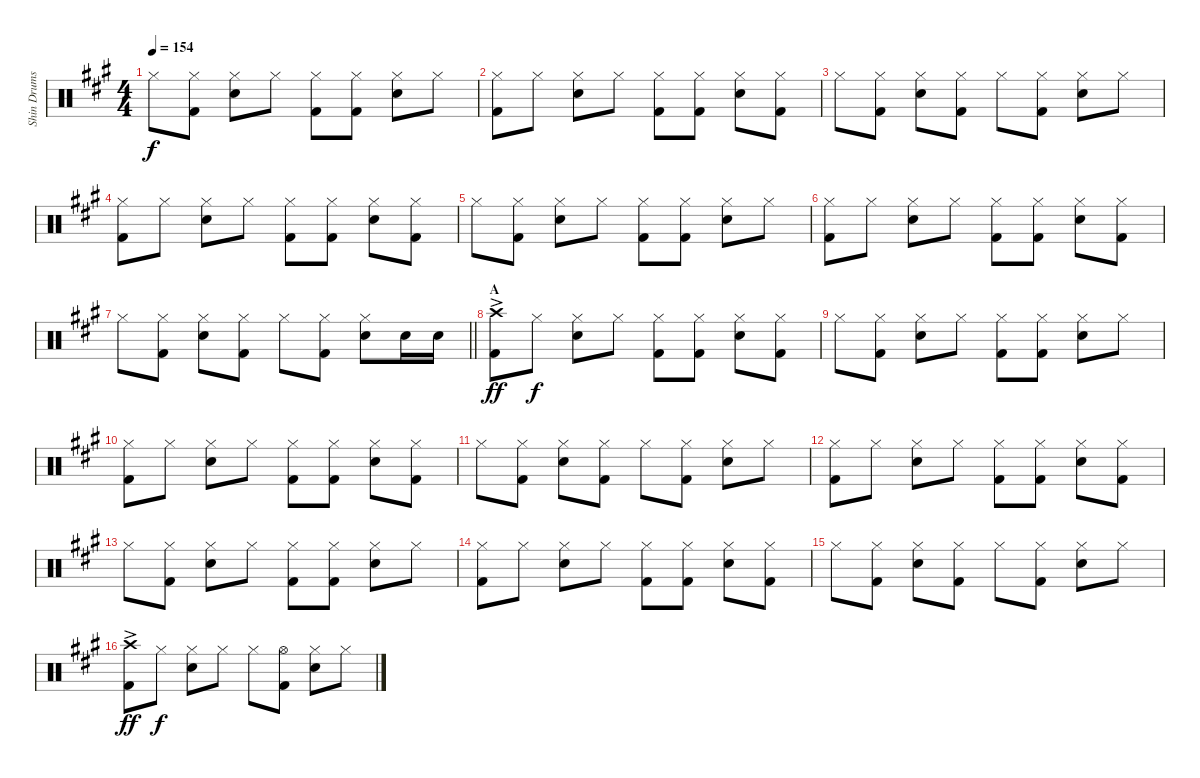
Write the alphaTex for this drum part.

\track ("Shin Drums" "Shin Drums") {instrument percussion}
\staff {score}
\articulation defaults
\ts (4 4)
\tempo 154
\clef neutral
\ks a "Hi-Hat (closed)".8{dy f}
("Hi-Hat (closed)" "Kick (hit) 2").8 ("Hi-Hat (closed)" "Snare (hit) 2").8 "Hi-Hat (closed)".8 ("Hi-Hat (closed)" "Kick (hit) 2").8 ("Hi-Hat (closed)" "Kick (hit) 2").8 ("Hi-Hat (closed)" "Snare (hit) 2").8 "Hi-Hat (closed)".8 |
("Hi-Hat (closed)" "Kick (hit) 2").8 "Hi-Hat (closed)".8 ("Hi-Hat (closed)" "Snare (hit) 2").8 "Hi-Hat (closed)".8 ("Hi-Hat (closed)" "Kick (hit) 2").8 ("Hi-Hat (closed)" "Kick (hit) 2").8 ("Hi-Hat (closed)" "Snare (hit) 2").8 ("Hi-Hat (closed)" "Kick (hit) 2").8 |
"Hi-Hat (closed)".8 ("Hi-Hat (closed)" "Kick (hit) 2").8 ("Hi-Hat (closed)" "Snare (hit) 2").8 ("Hi-Hat (closed)" "Kick (hit) 2").8 "Hi-Hat (closed)".8 ("Hi-Hat (closed)" "Kick (hit) 2").8 ("Hi-Hat (closed)" "Snare (hit) 2").8 "Hi-Hat (closed)".8 |
("Hi-Hat (closed)" "Kick (hit) 2").8 "Hi-Hat (closed)".8 ("Hi-Hat (closed)" "Snare (hit) 2").8 "Hi-Hat (closed)".8 ("Hi-Hat (closed)" "Kick (hit) 2").8 ("Hi-Hat (closed)" "Kick (hit) 2").8 ("Hi-Hat (closed)" "Snare (hit) 2").8 ("Hi-Hat (closed)" "Kick (hit) 2").8 |
"Hi-Hat (closed)".8 ("Hi-Hat (closed)" "Kick (hit) 2").8 ("Hi-Hat (closed)" "Snare (hit) 2").8 "Hi-Hat (closed)".8 ("Hi-Hat (closed)" "Kick (hit) 2").8 ("Hi-Hat (closed)" "Kick (hit) 2").8 ("Hi-Hat (closed)" "Snare (hit) 2").8 "Hi-Hat (closed)".8 |
("Hi-Hat (closed)" "Kick (hit) 2").8 "Hi-Hat (closed)".8 ("Hi-Hat (closed)" "Snare (hit) 2").8 "Hi-Hat (closed)".8 ("Hi-Hat (closed)" "Kick (hit) 2").8 ("Hi-Hat (closed)" "Kick (hit) 2").8 ("Hi-Hat (closed)" "Snare (hit) 2").8 ("Hi-Hat (closed)" "Kick (hit) 2").8 |
\barLineRight lightlight "Hi-Hat (closed)".8
("Hi-Hat (closed)" "Kick (hit) 2").8 ("Hi-Hat (closed)" "Snare (hit) 2").8 ("Hi-Hat (closed)" "Kick (hit) 2").8 "Hi-Hat (closed)".8 ("Hi-Hat (closed)" "Kick (hit) 2").8 ("Hi-Hat (closed)" "Snare (hit) 2").8 "Snare (hit) 2".16 "Snare (hit) 2".16 |
\section ("" "A")
("Crash high (hit)"{ac} "Kick (hit) 2").8{dy ff} "Hi-Hat (closed)".8{dy f} ("Hi-Hat (closed)" "Snare (hit) 2").8 "Hi-Hat (closed)".8 ("Hi-Hat (closed)" "Kick (hit) 2").8 ("Hi-Hat (closed)" "Kick (hit) 2").8 ("Hi-Hat (closed)" "Snare (hit) 2").8 ("Hi-Hat (closed)" "Kick (hit) 2").8 |
"Hi-Hat (closed)".8 ("Hi-Hat (closed)" "Kick (hit) 2").8 ("Hi-Hat (closed)" "Snare (hit) 2").8 "Hi-Hat (closed)".8 ("Hi-Hat (closed)" "Kick (hit) 2").8 ("Hi-Hat (closed)" "Kick (hit) 2").8 ("Hi-Hat (closed)" "Snare (hit) 2").8 "Hi-Hat (closed)".8 |
("Hi-Hat (closed)" "Kick (hit) 2").8 "Hi-Hat (closed)".8 ("Hi-Hat (closed)" "Snare (hit) 2").8 "Hi-Hat (closed)".8 ("Hi-Hat (closed)" "Kick (hit) 2").8 ("Hi-Hat (closed)" "Kick (hit) 2").8 ("Hi-Hat (closed)" "Snare (hit) 2").8 ("Hi-Hat (closed)" "Kick (hit) 2").8 |
"Hi-Hat (closed)".8 ("Hi-Hat (closed)" "Kick (hit) 2").8 ("Hi-Hat (closed)" "Snare (hit) 2").8 ("Hi-Hat (closed)" "Kick (hit) 2").8 "Hi-Hat (closed)".8 ("Hi-Hat (closed)" "Kick (hit) 2").8 ("Hi-Hat (closed)" "Snare (hit) 2").8 "Hi-Hat (closed)".8 |
("Hi-Hat (closed)" "Kick (hit) 2").8 "Hi-Hat (closed)".8 ("Hi-Hat (closed)" "Snare (hit) 2").8 "Hi-Hat (closed)".8 ("Hi-Hat (closed)" "Kick (hit) 2").8 ("Hi-Hat (closed)" "Kick (hit) 2").8 ("Hi-Hat (closed)" "Snare (hit) 2").8 ("Hi-Hat (closed)" "Kick (hit) 2").8 |
"Hi-Hat (closed)".8 ("Hi-Hat (closed)" "Kick (hit) 2").8 ("Hi-Hat (closed)" "Snare (hit) 2").8 "Hi-Hat (closed)".8 ("Hi-Hat (closed)" "Kick (hit) 2").8 ("Hi-Hat (closed)" "Kick (hit) 2").8 ("Hi-Hat (closed)" "Snare (hit) 2").8 "Hi-Hat (closed)".8 |
("Hi-Hat (closed)" "Kick (hit) 2").8 "Hi-Hat (closed)".8 ("Hi-Hat (closed)" "Snare (hit) 2").8 "Hi-Hat (closed)".8 ("Hi-Hat (closed)" "Kick (hit) 2").8 ("Hi-Hat (closed)" "Kick (hit) 2").8 ("Hi-Hat (closed)" "Snare (hit) 2").8 ("Hi-Hat (closed)" "Kick (hit) 2").8 |
"Hi-Hat (closed)".8 ("Hi-Hat (closed)" "Kick (hit) 2").8 ("Hi-Hat (closed)" "Snare (hit) 2").8 ("Hi-Hat (closed)" "Kick (hit) 2").8 "Hi-Hat (closed)".8 ("Hi-Hat (closed)" "Kick (hit) 2").8 ("Hi-Hat (closed)" "Snare (hit) 2").8 "Hi-Hat (closed)".8 |
("Crash high (hit)"{ac} "Kick (hit) 2").8{dy ff} "Hi-Hat (closed)".8{dy f} ("Hi-Hat (closed)" "Snare (hit) 2").8 "Hi-Hat (closed)".8 "Hi-Hat (closed)".8 ("Hi-Hat (open)" "Kick (hit) 2").8 ("Hi-Hat (closed)" "Snare (hit) 2").8 "Hi-Hat (closed)".8
